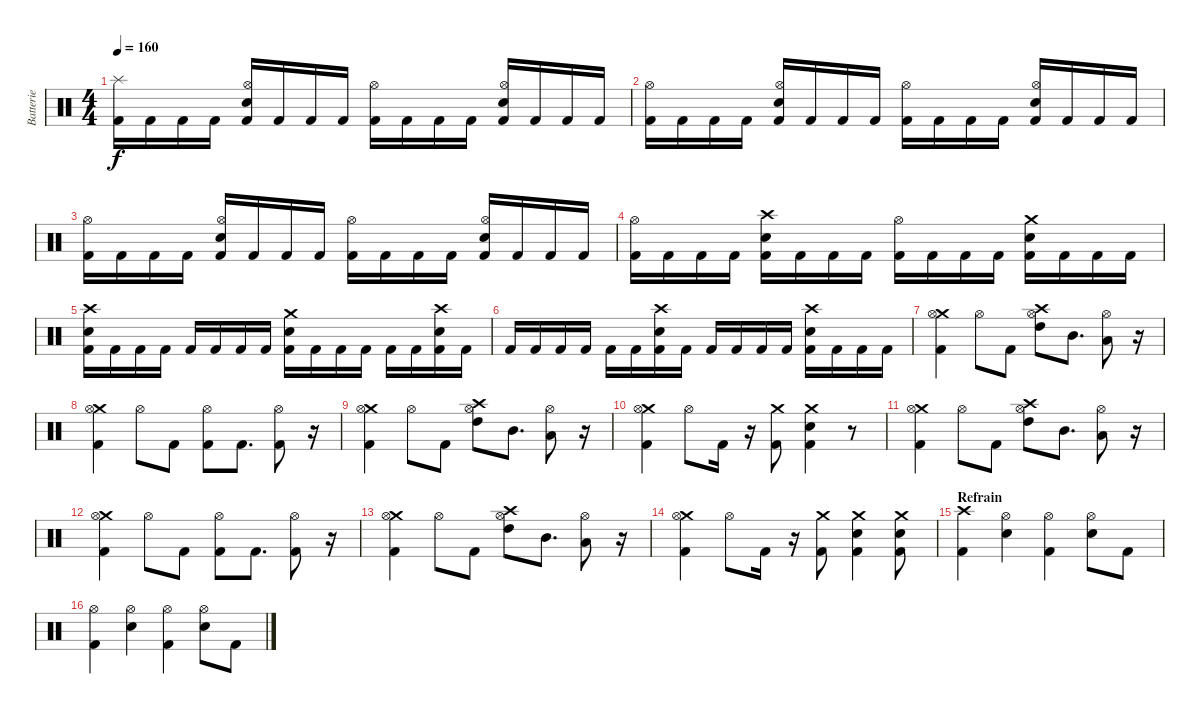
\track ("Batterie" "Batterie") {instrument percussion}
\staff {score}
\articulation defaults
\ts (4 4)
\tempo 160
\clef neutral
\ks c
("Splash (hit)" "Kick (hit) 2").16{dy f} "Kick (hit) 2".16 "Kick (hit) 2".16 "Kick (hit) 2".16 ("Kick (hit) 2" "Hi-Hat (open)" "Electric Snare (hit)").16 "Kick (hit) 2".16 "Kick (hit) 2".16 "Kick (hit) 2".16 ("Hi-Hat (open)" "Kick (hit) 2").16 "Kick (hit) 2".16 "Kick (hit) 2".16 "Kick (hit) 2".16 ("Kick (hit) 2" "Hi-Hat (open)" "Electric Snare (hit)").16 "Kick (hit) 2".16 "Kick (hit) 2".16 "Kick (hit) 2".16 |
("Hi-Hat (open)" "Kick (hit) 2").16 "Kick (hit) 2".16 "Kick (hit) 2".16 "Kick (hit) 2".16 ("Kick (hit) 2" "Hi-Hat (open)" "Electric Snare (hit)").16 "Kick (hit) 2".16 "Kick (hit) 2".16 "Kick (hit) 2".16 ("Hi-Hat (open)" "Kick (hit) 2").16 "Kick (hit) 2".16 "Kick (hit) 2".16 "Kick (hit) 2".16 ("Kick (hit) 2" "Hi-Hat (open)" "Electric Snare (hit)").16 "Kick (hit) 2".16 "Kick (hit) 2".16 "Kick (hit) 2".16 |
("Hi-Hat (open)" "Kick (hit) 2").16 "Kick (hit) 2".16 "Kick (hit) 2".16 "Kick (hit) 2".16 ("Kick (hit) 2" "Hi-Hat (open)" "Electric Snare (hit)").16 "Kick (hit) 2".16 "Kick (hit) 2".16 "Kick (hit) 2".16 ("Hi-Hat (open)" "Kick (hit) 2").16 "Kick (hit) 2".16 "Kick (hit) 2".16 "Kick (hit) 2".16 ("Kick (hit) 2" "Hi-Hat (open)" "Electric Snare (hit)").16 "Kick (hit) 2".16 "Kick (hit) 2".16 "Kick (hit) 2".16 |
("Hi-Hat (open)" "Kick (hit) 2").16 "Kick (hit) 2".16 "Kick (hit) 2".16 "Kick (hit) 2".16 ("Kick (hit) 2" "Crash high (hit)" "Electric Snare (hit)").16 "Kick (hit) 2".16 "Kick (hit) 2".16 "Kick (hit) 2".16 ("Hi-Hat (open)" "Kick (hit) 2").16 "Kick (hit) 2".16 "Kick (hit) 2".16 "Kick (hit) 2".16 ("Kick (hit) 2" "Crash medium (hit)" "Electric Snare (hit)").16 "Kick (hit) 2".16 "Kick (hit) 2".16 "Kick (hit) 2".16 |
("Crash high (hit)" "Electric Snare (hit)" "Kick (hit) 2").16 "Kick (hit) 2".16 "Kick (hit) 2".16 "Kick (hit) 2".16 "Kick (hit) 2".16 "Kick (hit) 2".16 "Kick (hit) 2".16 "Kick (hit) 2".16 ("Crash medium (hit)" "Electric Snare (hit)" "Kick (hit) 2").16 "Kick (hit) 2".16 "Kick (hit) 2".16 "Kick (hit) 2".16 "Kick (hit) 2".16 "Kick (hit) 2".16 ("Crash high (hit)" "Electric Snare (hit)" "Kick (hit) 2").16 "Kick (hit) 2".16 |
"Kick (hit) 2".16 "Kick (hit) 2".16 "Kick (hit) 2".16 "Kick (hit) 2".16 "Kick (hit) 2".16 "Kick (hit) 2".16 ("Crash high (hit)" "Electric Snare (hit)" "Kick (hit) 2").16 "Kick (hit) 2".16 "Kick (hit) 2".16 "Kick (hit) 2".16 "Kick (hit) 2".16 "Kick (hit) 2".16 ("Crash high (hit)" "Electric Snare (hit)" "Kick (hit) 2").16 "Kick (hit) 2".16 "Kick (hit) 2".16 "Kick (hit) 2".16 |
("Crash medium (hit)" "Hi-Hat (open)" "Kick (hit) 2").4 "Hi-Hat (open)".8 "Kick (hit) 2".8 ("Crash high (hit)" "Hi-Hat (open)" "High Tom (hit)").8 "Mid Tom (hit)".8{d} ("Hi-Hat (open)" "Low Tom (hit)").8 r.16 |
("Crash medium (hit)" "Hi-Hat (open)" "Kick (hit) 2").4 "Hi-Hat (open)".8 "Kick (hit) 2".8 ("Hi-Hat (open)" "Kick (hit) 2").8 "Kick (hit) 2".8{d} ("Hi-Hat (open)" "Kick (hit) 2").8 r.16 |
("Crash medium (hit)" "Hi-Hat (open)" "Kick (hit) 2").4 "Hi-Hat (open)".8 "Kick (hit) 2".8 ("Crash high (hit)" "Hi-Hat (open)" "High Tom (hit)").8 "Mid Tom (hit)".8{d} ("Hi-Hat (open)" "Low Tom (hit)").8 r.16 |
("Crash medium (hit)" "Hi-Hat (open)" "Kick (hit) 2").4 "Hi-Hat (open)".8 "Kick (hit) 2".16 r.16 ("Crash medium (hit)" "Kick (hit) 2").8 ("Crash medium (hit)" "Electric Snare (hit)" "Kick (hit) 2").4 r.8 |
("Crash medium (hit)" "Hi-Hat (open)" "Kick (hit) 2").4 "Hi-Hat (open)".8 "Kick (hit) 2".8 ("Crash high (hit)" "Hi-Hat (open)" "High Tom (hit)").8 "Mid Tom (hit)".8{d} ("Hi-Hat (open)" "Low Tom (hit)").8 r.16 |
("Crash medium (hit)" "Hi-Hat (open)" "Kick (hit) 2").4 "Hi-Hat (open)".8 "Kick (hit) 2".8 ("Hi-Hat (open)" "Kick (hit) 2").8 "Kick (hit) 2".8{d} ("Hi-Hat (open)" "Kick (hit) 2").8 r.16 |
("Crash medium (hit)" "Hi-Hat (open)" "Kick (hit) 2").4 "Hi-Hat (open)".8 "Kick (hit) 2".8 ("Crash high (hit)" "Hi-Hat (open)" "High Tom (hit)").8 "Mid Tom (hit)".8{d} ("Hi-Hat (open)" "Low Tom (hit)").8 r.16 |
("Crash medium (hit)" "Hi-Hat (open)" "Kick (hit) 2").4 "Hi-Hat (open)".8 "Kick (hit) 2".16 r.16 ("Crash medium (hit)" "Kick (hit) 2").8 ("Crash medium (hit)" "Electric Snare (hit)" "Kick (hit) 2").4 ("Crash medium (hit)" "Electric Snare (hit)" "Kick (hit) 2").8 |
\section ("" "Refrain")
("Crash high (hit)" "Kick (hit) 2").4 ("Hi-Hat (open)" "Electric Snare (hit)").4 ("Hi-Hat (open)" "Kick (hit) 2").4 ("Hi-Hat (open)" "Electric Snare (hit)").8 "Kick (hit) 2".8 |
("Hi-Hat (open)" "Kick (hit) 2").4 ("Hi-Hat (open)" "Electric Snare (hit)").4 ("Hi-Hat (open)" "Kick (hit) 2").4 ("Hi-Hat (open)" "Electric Snare (hit)").8 "Kick (hit) 2".8
